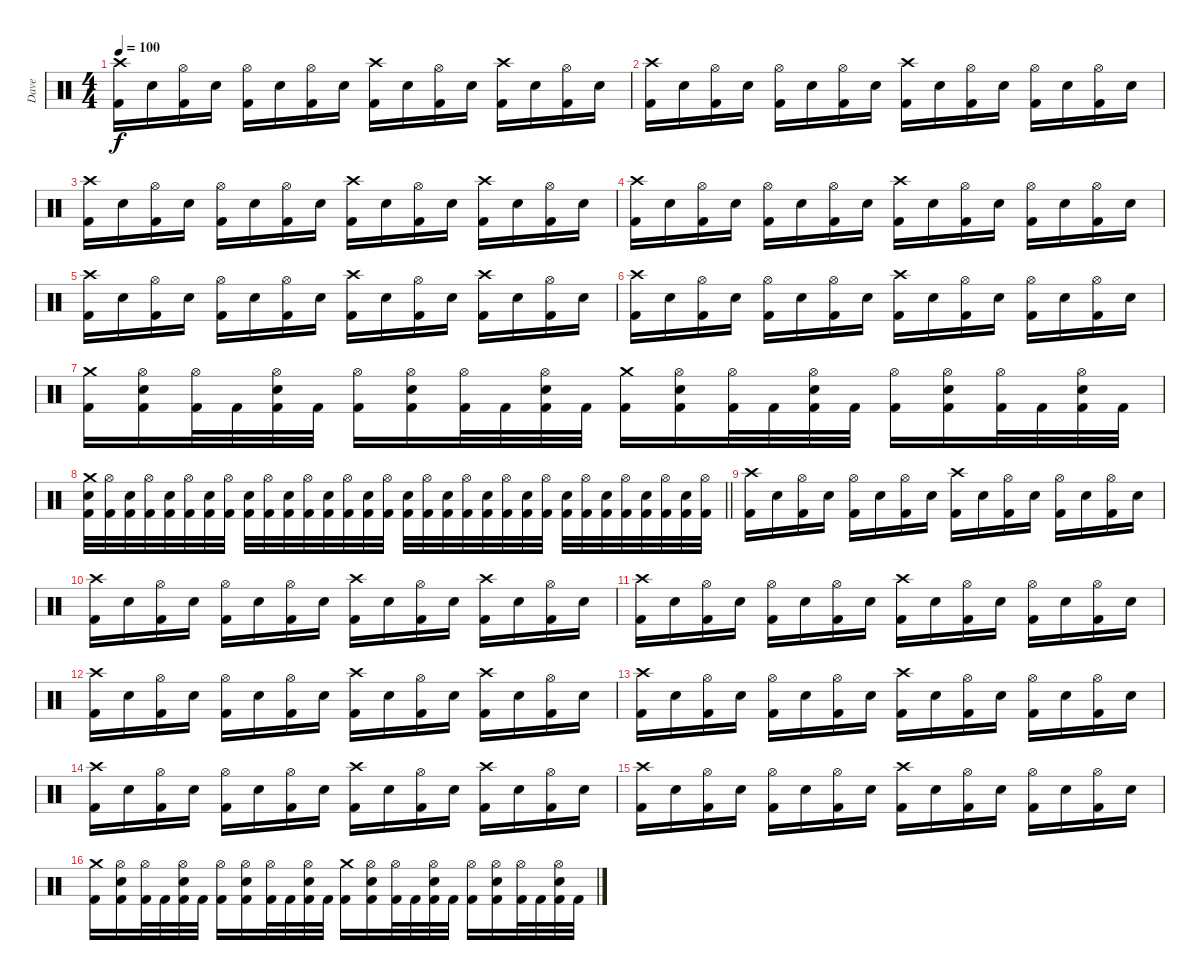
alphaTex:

\track ("Dave" "Dave") {instrument percussion}
\staff {score}
\articulation defaults
\ts (4 4)
\tempo 100
\clef neutral
\ks c
("Crash high (hit)" "Kick (hit) 2").16{dy f} "Snare (hit) 2".16 ("Hi-Hat (open)" "Kick (hit) 2").16 "Snare (hit) 2".16 ("Hi-Hat (open)" "Kick (hit) 2").16 "Snare (hit) 2".16 ("Hi-Hat (open)" "Kick (hit) 2").16 "Snare (hit) 2".16 ("Crash high (hit)" "Kick (hit) 2").16 "Snare (hit) 2".16 ("Hi-Hat (open)" "Kick (hit) 2").16 "Snare (hit) 2".16 ("Crash high (hit)" "Kick (hit) 2").16 "Snare (hit) 2".16 ("Hi-Hat (open)" "Kick (hit) 2").16 "Snare (hit) 2".16 |
("Crash high (hit)" "Kick (hit) 2").16 "Snare (hit) 2".16 ("Hi-Hat (open)" "Kick (hit) 2").16 "Snare (hit) 2".16 ("Hi-Hat (open)" "Kick (hit) 2").16 "Snare (hit) 2".16 ("Hi-Hat (open)" "Kick (hit) 2").16 "Snare (hit) 2".16 ("Crash high (hit)" "Kick (hit) 2").16 "Snare (hit) 2".16 ("Hi-Hat (open)" "Kick (hit) 2").16 "Snare (hit) 2".16 ("Hi-Hat (open)" "Kick (hit) 2").16 "Snare (hit) 2".16 ("Hi-Hat (open)" "Kick (hit) 2").16 "Snare (hit) 2".16 |
("Crash high (hit)" "Kick (hit) 2").16 "Snare (hit) 2".16 ("Hi-Hat (open)" "Kick (hit) 2").16 "Snare (hit) 2".16 ("Hi-Hat (open)" "Kick (hit) 2").16 "Snare (hit) 2".16 ("Hi-Hat (open)" "Kick (hit) 2").16 "Snare (hit) 2".16 ("Crash high (hit)" "Kick (hit) 2").16 "Snare (hit) 2".16 ("Hi-Hat (open)" "Kick (hit) 2").16 "Snare (hit) 2".16 ("Crash high (hit)" "Kick (hit) 2").16 "Snare (hit) 2".16 ("Hi-Hat (open)" "Kick (hit) 2").16 "Snare (hit) 2".16 |
("Crash high (hit)" "Kick (hit) 2").16 "Snare (hit) 2".16 ("Hi-Hat (open)" "Kick (hit) 2").16 "Snare (hit) 2".16 ("Hi-Hat (open)" "Kick (hit) 2").16 "Snare (hit) 2".16 ("Hi-Hat (open)" "Kick (hit) 2").16 "Snare (hit) 2".16 ("Crash high (hit)" "Kick (hit) 2").16 "Snare (hit) 2".16 ("Hi-Hat (open)" "Kick (hit) 2").16 "Snare (hit) 2".16 ("Hi-Hat (open)" "Kick (hit) 2").16 "Snare (hit) 2".16 ("Hi-Hat (open)" "Kick (hit) 2").16 "Snare (hit) 2".16 |
("Crash high (hit)" "Kick (hit) 2").16 "Snare (hit) 2".16 ("Hi-Hat (open)" "Kick (hit) 2").16 "Snare (hit) 2".16 ("Hi-Hat (open)" "Kick (hit) 2").16 "Snare (hit) 2".16 ("Hi-Hat (open)" "Kick (hit) 2").16 "Snare (hit) 2".16 ("Crash high (hit)" "Kick (hit) 2").16 "Snare (hit) 2".16 ("Hi-Hat (open)" "Kick (hit) 2").16 "Snare (hit) 2".16 ("Crash high (hit)" "Kick (hit) 2").16 "Snare (hit) 2".16 ("Hi-Hat (open)" "Kick (hit) 2").16 "Snare (hit) 2".16 |
("Crash high (hit)" "Kick (hit) 2").16 "Snare (hit) 2".16 ("Hi-Hat (open)" "Kick (hit) 2").16 "Snare (hit) 2".16 ("Hi-Hat (open)" "Kick (hit) 2").16 "Snare (hit) 2".16 ("Hi-Hat (open)" "Kick (hit) 2").16 "Snare (hit) 2".16 ("Crash high (hit)" "Kick (hit) 2").16 "Snare (hit) 2".16 ("Hi-Hat (open)" "Kick (hit) 2").16 "Snare (hit) 2".16 ("Hi-Hat (open)" "Kick (hit) 2").16 "Snare (hit) 2".16 ("Hi-Hat (open)" "Kick (hit) 2").16 "Snare (hit) 2".16 |
("Crash medium (hit)" "Kick (hit) 2").16 ("Hi-Hat (open)" "Snare (hit) 2" "Kick (hit) 2").16 ("Hi-Hat (open)" "Kick (hit) 2").32 "Kick (hit) 2".32 ("Hi-Hat (open)" "Snare (hit) 2" "Kick (hit) 2").32 "Kick (hit) 2".32 ("Hi-Hat (open)" "Kick (hit) 2").16 ("Hi-Hat (open)" "Snare (hit) 2" "Kick (hit) 2").16 ("Hi-Hat (open)" "Kick (hit) 2").32 "Kick (hit) 2".32 ("Hi-Hat (open)" "Snare (hit) 2" "Kick (hit) 2").32 "Kick (hit) 2".32 ("Crash medium (hit)" "Kick (hit) 2").16 ("Hi-Hat (open)" "Snare (hit) 2" "Kick (hit) 2").16 ("Hi-Hat (open)" "Kick (hit) 2").32 "Kick (hit) 2".32 ("Hi-Hat (open)" "Snare (hit) 2" "Kick (hit) 2").32 "Kick (hit) 2".32 ("Hi-Hat (open)" "Kick (hit) 2").16 ("Hi-Hat (open)" "Snare (hit) 2" "Kick (hit) 2").16 ("Hi-Hat (open)" "Kick (hit) 2").32 "Kick (hit) 2".32 ("Hi-Hat (open)" "Snare (hit) 2" "Kick (hit) 2").32 "Kick (hit) 2".32 |
\barLineRight lightlight
("Crash medium (hit)" "Snare (hit) 2" "Kick (hit) 2").32 ("Hi-Hat (open)" "Kick (hit) 2").32 ("Snare (hit) 2" "Kick (hit) 2").32 ("Hi-Hat (open)" "Kick (hit) 2").32 ("Snare (hit) 2" "Kick (hit) 2").32 ("Hi-Hat (open)" "Kick (hit) 2").32 ("Snare (hit) 2" "Kick (hit) 2").32 ("Hi-Hat (open)" "Kick (hit) 2").32 ("Snare (hit) 2" "Kick (hit) 2").32 ("Hi-Hat (open)" "Kick (hit) 2").32 ("Snare (hit) 2" "Kick (hit) 2").32 ("Hi-Hat (open)" "Kick (hit) 2").32 ("Snare (hit) 2" "Kick (hit) 2").32 ("Hi-Hat (open)" "Kick (hit) 2").32 ("Snare (hit) 2" "Kick (hit) 2").32 ("Hi-Hat (open)" "Kick (hit) 2").32 ("Snare (hit) 2" "Kick (hit) 2").32 ("Hi-Hat (open)" "Kick (hit) 2").32 ("Snare (hit) 2" "Kick (hit) 2").32 ("Hi-Hat (open)" "Kick (hit) 2").32 ("Snare (hit) 2" "Kick (hit) 2").32 ("Hi-Hat (open)" "Kick (hit) 2").32 ("Snare (hit) 2" "Kick (hit) 2").32 ("Hi-Hat (open)" "Kick (hit) 2").32 ("Snare (hit) 2" "Kick (hit) 2").32 ("Hi-Hat (open)" "Kick (hit) 2").32 ("Snare (hit) 2" "Kick (hit) 2").32 ("Hi-Hat (open)" "Kick (hit) 2").32 ("Snare (hit) 2" "Kick (hit) 2").32 ("Hi-Hat (open)" "Kick (hit) 2").32 ("Snare (hit) 2" "Kick (hit) 2").32 ("Hi-Hat (open)" "Kick (hit) 2").32 |
("Crash high (hit)" "Kick (hit) 2").16 "Snare (hit) 2".16 ("Hi-Hat (open)" "Kick (hit) 2").16 "Snare (hit) 2".16 ("Hi-Hat (open)" "Kick (hit) 2").16 "Snare (hit) 2".16 ("Hi-Hat (open)" "Kick (hit) 2").16 "Snare (hit) 2".16 ("Crash high (hit)" "Kick (hit) 2").16 "Snare (hit) 2".16 ("Hi-Hat (open)" "Kick (hit) 2").16 "Snare (hit) 2".16 ("Hi-Hat (open)" "Kick (hit) 2").16 "Snare (hit) 2".16 ("Hi-Hat (open)" "Kick (hit) 2").16 "Snare (hit) 2".16 |
("Crash high (hit)" "Kick (hit) 2").16 "Snare (hit) 2".16 ("Hi-Hat (open)" "Kick (hit) 2").16 "Snare (hit) 2".16 ("Hi-Hat (open)" "Kick (hit) 2").16 "Snare (hit) 2".16 ("Hi-Hat (open)" "Kick (hit) 2").16 "Snare (hit) 2".16 ("Crash high (hit)" "Kick (hit) 2").16 "Snare (hit) 2".16 ("Hi-Hat (open)" "Kick (hit) 2").16 "Snare (hit) 2".16 ("Crash high (hit)" "Kick (hit) 2").16 "Snare (hit) 2".16 ("Hi-Hat (open)" "Kick (hit) 2").16 "Snare (hit) 2".16 |
("Crash high (hit)" "Kick (hit) 2").16 "Snare (hit) 2".16 ("Hi-Hat (open)" "Kick (hit) 2").16 "Snare (hit) 2".16 ("Hi-Hat (open)" "Kick (hit) 2").16 "Snare (hit) 2".16 ("Hi-Hat (open)" "Kick (hit) 2").16 "Snare (hit) 2".16 ("Crash high (hit)" "Kick (hit) 2").16 "Snare (hit) 2".16 ("Hi-Hat (open)" "Kick (hit) 2").16 "Snare (hit) 2".16 ("Hi-Hat (open)" "Kick (hit) 2").16 "Snare (hit) 2".16 ("Hi-Hat (open)" "Kick (hit) 2").16 "Snare (hit) 2".16 |
("Crash high (hit)" "Kick (hit) 2").16 "Snare (hit) 2".16 ("Hi-Hat (open)" "Kick (hit) 2").16 "Snare (hit) 2".16 ("Hi-Hat (open)" "Kick (hit) 2").16 "Snare (hit) 2".16 ("Hi-Hat (open)" "Kick (hit) 2").16 "Snare (hit) 2".16 ("Crash high (hit)" "Kick (hit) 2").16 "Snare (hit) 2".16 ("Hi-Hat (open)" "Kick (hit) 2").16 "Snare (hit) 2".16 ("Crash high (hit)" "Kick (hit) 2").16 "Snare (hit) 2".16 ("Hi-Hat (open)" "Kick (hit) 2").16 "Snare (hit) 2".16 |
("Crash high (hit)" "Kick (hit) 2").16 "Snare (hit) 2".16 ("Hi-Hat (open)" "Kick (hit) 2").16 "Snare (hit) 2".16 ("Hi-Hat (open)" "Kick (hit) 2").16 "Snare (hit) 2".16 ("Hi-Hat (open)" "Kick (hit) 2").16 "Snare (hit) 2".16 ("Crash high (hit)" "Kick (hit) 2").16 "Snare (hit) 2".16 ("Hi-Hat (open)" "Kick (hit) 2").16 "Snare (hit) 2".16 ("Hi-Hat (open)" "Kick (hit) 2").16 "Snare (hit) 2".16 ("Hi-Hat (open)" "Kick (hit) 2").16 "Snare (hit) 2".16 |
("Crash high (hit)" "Kick (hit) 2").16 "Snare (hit) 2".16 ("Hi-Hat (open)" "Kick (hit) 2").16 "Snare (hit) 2".16 ("Hi-Hat (open)" "Kick (hit) 2").16 "Snare (hit) 2".16 ("Hi-Hat (open)" "Kick (hit) 2").16 "Snare (hit) 2".16 ("Crash high (hit)" "Kick (hit) 2").16 "Snare (hit) 2".16 ("Hi-Hat (open)" "Kick (hit) 2").16 "Snare (hit) 2".16 ("Crash high (hit)" "Kick (hit) 2").16 "Snare (hit) 2".16 ("Hi-Hat (open)" "Kick (hit) 2").16 "Snare (hit) 2".16 |
("Crash high (hit)" "Kick (hit) 2").16 "Snare (hit) 2".16 ("Hi-Hat (open)" "Kick (hit) 2").16 "Snare (hit) 2".16 ("Hi-Hat (open)" "Kick (hit) 2").16 "Snare (hit) 2".16 ("Hi-Hat (open)" "Kick (hit) 2").16 "Snare (hit) 2".16 ("Crash high (hit)" "Kick (hit) 2").16 "Snare (hit) 2".16 ("Hi-Hat (open)" "Kick (hit) 2").16 "Snare (hit) 2".16 ("Hi-Hat (open)" "Kick (hit) 2").16 "Snare (hit) 2".16 ("Hi-Hat (open)" "Kick (hit) 2").16 "Snare (hit) 2".16 |
("Crash medium (hit)" "Kick (hit) 2").16 ("Hi-Hat (open)" "Snare (hit) 2" "Kick (hit) 2").16 ("Hi-Hat (open)" "Kick (hit) 2").32 "Kick (hit) 2".32 ("Hi-Hat (open)" "Snare (hit) 2" "Kick (hit) 2").32 "Kick (hit) 2".32 ("Hi-Hat (open)" "Kick (hit) 2").16 ("Hi-Hat (open)" "Snare (hit) 2" "Kick (hit) 2").16 ("Hi-Hat (open)" "Kick (hit) 2").32 "Kick (hit) 2".32 ("Hi-Hat (open)" "Snare (hit) 2" "Kick (hit) 2").32 "Kick (hit) 2".32 ("Crash medium (hit)" "Kick (hit) 2").16 ("Hi-Hat (open)" "Snare (hit) 2" "Kick (hit) 2").16 ("Hi-Hat (open)" "Kick (hit) 2").32 "Kick (hit) 2".32 ("Hi-Hat (open)" "Snare (hit) 2" "Kick (hit) 2").32 "Kick (hit) 2".32 ("Hi-Hat (open)" "Kick (hit) 2").16 ("Hi-Hat (open)" "Snare (hit) 2" "Kick (hit) 2").16 ("Hi-Hat (open)" "Kick (hit) 2").32 "Kick (hit) 2".32 ("Hi-Hat (open)" "Snare (hit) 2" "Kick (hit) 2").32 "Kick (hit) 2".32
